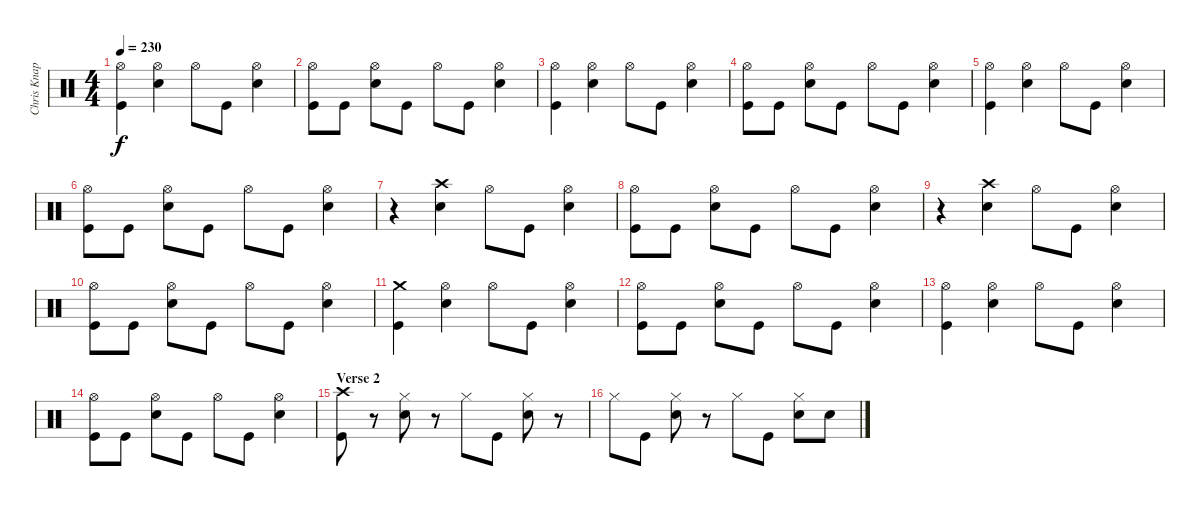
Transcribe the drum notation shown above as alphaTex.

\track ("Chris Knapp" "Chris Knap") {instrument percussion}
\staff {score}
\articulation defaults
\ts (4 4)
\tempo 230
\clef neutral
\ks c
("Hi-Hat (open)" "Kick (hit)").4{dy f} ("Hi-Hat (open)" "Electric Snare (hit)").4 "Hi-Hat (open)".8 "Kick (hit)".8 ("Hi-Hat (open)" "Electric Snare (hit)").4 |
("Hi-Hat (open)" "Kick (hit)").8 "Kick (hit)".8 ("Hi-Hat (open)" "Electric Snare (hit)").8 "Kick (hit)".8 "Hi-Hat (open)".8 "Kick (hit)".8 ("Hi-Hat (open)" "Electric Snare (hit)").4 |
("Hi-Hat (open)" "Kick (hit)").4 ("Hi-Hat (open)" "Electric Snare (hit)").4 "Hi-Hat (open)".8 "Kick (hit)".8 ("Hi-Hat (open)" "Electric Snare (hit)").4 |
("Hi-Hat (open)" "Kick (hit)").8 "Kick (hit)".8 ("Hi-Hat (open)" "Electric Snare (hit)").8 "Kick (hit)".8 "Hi-Hat (open)".8 "Kick (hit)".8 ("Hi-Hat (open)" "Electric Snare (hit)").4 |
("Hi-Hat (open)" "Kick (hit)").4 ("Hi-Hat (open)" "Electric Snare (hit)").4 "Hi-Hat (open)".8 "Kick (hit)".8 ("Hi-Hat (open)" "Electric Snare (hit)").4 |
("Hi-Hat (open)" "Kick (hit)").8 "Kick (hit)".8 ("Hi-Hat (open)" "Electric Snare (hit)").8 "Kick (hit)".8 "Hi-Hat (open)".8 "Kick (hit)".8 ("Hi-Hat (open)" "Electric Snare (hit)").4 |
r.4 ("Crash high (hit)" "Electric Snare (hit)").4 "Hi-Hat (open)".8 "Kick (hit)".8 ("Hi-Hat (open)" "Electric Snare (hit)").4 |
("Hi-Hat (open)" "Kick (hit)").8 "Kick (hit)".8 ("Hi-Hat (open)" "Electric Snare (hit)").8 "Kick (hit)".8 "Hi-Hat (open)".8 "Kick (hit)".8 ("Hi-Hat (open)" "Electric Snare (hit)").4 |
r.4 ("Crash high (hit)" "Electric Snare (hit)").4 "Hi-Hat (open)".8 "Kick (hit)".8 ("Hi-Hat (open)" "Electric Snare (hit)").4 |
("Hi-Hat (open)" "Kick (hit)").8 "Kick (hit)".8 ("Hi-Hat (open)" "Electric Snare (hit)").8 "Kick (hit)".8 "Hi-Hat (open)".8 "Kick (hit)".8 ("Hi-Hat (open)" "Electric Snare (hit)").4 |
("Crash medium (hit)" "Kick (hit)").4 ("Hi-Hat (open)" "Electric Snare (hit)").4 "Hi-Hat (open)".8 "Kick (hit)".8 ("Hi-Hat (open)" "Electric Snare (hit)").4 |
("Hi-Hat (open)" "Kick (hit)").8 "Kick (hit)".8 ("Hi-Hat (open)" "Electric Snare (hit)").8 "Kick (hit)".8 "Hi-Hat (open)".8 "Kick (hit)".8 ("Hi-Hat (open)" "Electric Snare (hit)").4 |
("Hi-Hat (open)" "Kick (hit)").4 ("Hi-Hat (open)" "Electric Snare (hit)").4 "Hi-Hat (open)".8 "Kick (hit)".8 ("Hi-Hat (open)" "Electric Snare (hit)").4 |
("Hi-Hat (open)" "Kick (hit)").8 "Kick (hit)".8 ("Hi-Hat (open)" "Electric Snare (hit)").8 "Kick (hit)".8 "Hi-Hat (open)".8 "Kick (hit)".8 ("Hi-Hat (open)" "Electric Snare (hit)").4 |
\section ("" "Verse 2")
("Crash high (hit)" "Kick (hit)").8 r.8 ("Hi-Hat (closed)" "Electric Snare (hit)").8 r.8 "Hi-Hat (closed)".8 "Kick (hit)".8 ("Hi-Hat (closed)" "Electric Snare (hit)").8 r.8 |
"Hi-Hat (closed)".8 "Kick (hit)".8 ("Hi-Hat (closed)" "Electric Snare (hit)").8 r.8 "Hi-Hat (closed)".8 "Kick (hit)".8 ("Hi-Hat (closed)" "Electric Snare (hit)").8 "Electric Snare (hit)".8
